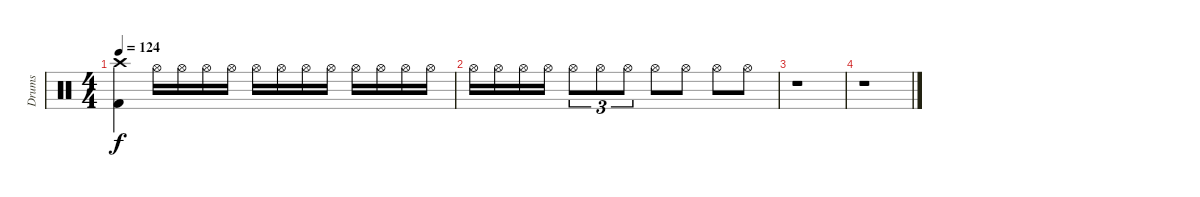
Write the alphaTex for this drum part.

\track ("Drums" "Drums") {instrument percussion}
\staff {score}
\articulation defaults
\ts (4 4)
\tempo 124
\clef neutral
\ks c
("Crash high (hit)" "Kick (hit) 2").4{dy f} "Hi-Hat (open)".16 "Hi-Hat (open)".16 "Hi-Hat (open)".16 "Hi-Hat (open)".16 "Hi-Hat (open)".16 "Hi-Hat (open)".16 "Hi-Hat (open)".16 "Hi-Hat (open)".16 "Hi-Hat (open)".16 "Hi-Hat (open)".16 "Hi-Hat (open)".16 "Hi-Hat (open)".16 |
"Hi-Hat (open)".16 "Hi-Hat (open)".16 "Hi-Hat (open)".16 "Hi-Hat (open)".16 "Hi-Hat (open)".8{tu (3 2)} "Hi-Hat (open)".8{tu (3 2)} "Hi-Hat (open)".8{tu (3 2)} "Hi-Hat (open)".8 "Hi-Hat (open)".8 "Hi-Hat (open)".8 "Hi-Hat (open)".8 |
r.1 |
r.1
